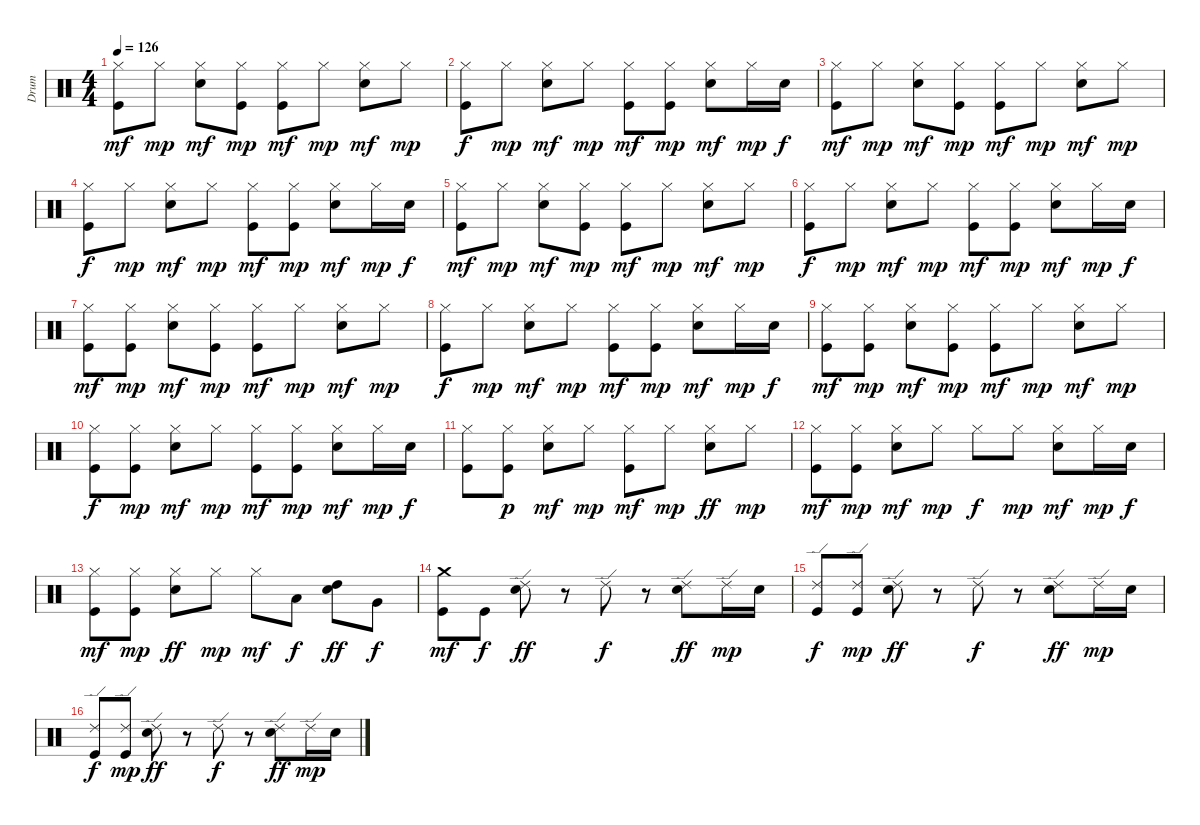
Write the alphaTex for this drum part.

\track ("Drum" "Drum") {instrument percussion}
\staff {score}
\articulation defaults
\ts (4 4)
\tempo 126
\clef neutral
\ks c
("Kick (hit)" "Hi-Hat (closed)").8{dy mf} "Hi-Hat (closed)".8{dy mp} ("Snare (hit) 2" "Hi-Hat (closed)").8{dy mf} ("Kick (hit)" "Hi-Hat (closed)").8{dy mp} ("Kick (hit)" "Hi-Hat (closed)").8{dy mf} "Hi-Hat (closed)".8{dy mp} ("Snare (hit) 2" "Hi-Hat (closed)").8{dy mf} "Hi-Hat (closed)".8{dy mp} |
("Kick (hit)" "Hi-Hat (closed)").8{dy f} "Hi-Hat (closed)".8{dy mp} ("Snare (hit) 2" "Hi-Hat (closed)").8{dy mf} "Hi-Hat (closed)".8{dy mp} ("Kick (hit)" "Hi-Hat (closed)").8{dy mf} ("Kick (hit)" "Hi-Hat (closed)").8{dy mp} ("Snare (hit) 2" "Hi-Hat (closed)").8{dy mf} "Hi-Hat (closed)".16{dy mp} "Snare (hit) 2".16{dy f} |
("Kick (hit)" "Hi-Hat (closed)").8{dy mf} "Hi-Hat (closed)".8{dy mp} ("Snare (hit) 2" "Hi-Hat (closed)").8{dy mf} ("Kick (hit)" "Hi-Hat (closed)").8{dy mp} ("Kick (hit)" "Hi-Hat (closed)").8{dy mf} "Hi-Hat (closed)".8{dy mp} ("Snare (hit) 2" "Hi-Hat (closed)").8{dy mf} "Hi-Hat (closed)".8{dy mp} |
("Kick (hit)" "Hi-Hat (closed)").8{dy f} "Hi-Hat (closed)".8{dy mp} ("Snare (hit) 2" "Hi-Hat (closed)").8{dy mf} "Hi-Hat (closed)".8{dy mp} ("Kick (hit)" "Hi-Hat (closed)").8{dy mf} ("Kick (hit)" "Hi-Hat (closed)").8{dy mp} ("Snare (hit) 2" "Hi-Hat (closed)").8{dy mf} "Hi-Hat (closed)".16{dy mp} "Snare (hit) 2".16{dy f} |
("Kick (hit)" "Hi-Hat (closed)").8{dy mf} "Hi-Hat (closed)".8{dy mp} ("Snare (hit) 2" "Hi-Hat (closed)").8{dy mf} ("Kick (hit)" "Hi-Hat (closed)").8{dy mp} ("Kick (hit)" "Hi-Hat (closed)").8{dy mf} "Hi-Hat (closed)".8{dy mp} ("Snare (hit) 2" "Hi-Hat (closed)").8{dy mf} "Hi-Hat (closed)".8{dy mp} |
("Kick (hit)" "Hi-Hat (closed)").8{dy f} "Hi-Hat (closed)".8{dy mp} ("Snare (hit) 2" "Hi-Hat (closed)").8{dy mf} "Hi-Hat (closed)".8{dy mp} ("Kick (hit)" "Hi-Hat (closed)").8{dy mf} ("Kick (hit)" "Hi-Hat (closed)").8{dy mp} ("Snare (hit) 2" "Hi-Hat (closed)").8{dy mf} "Hi-Hat (closed)".16{dy mp} "Snare (hit) 2".16{dy f} |
("Kick (hit)" "Hi-Hat (closed)").8{dy mf} ("Kick (hit)" "Hi-Hat (closed)").8{dy mp} ("Snare (hit) 2" "Hi-Hat (closed)").8{dy mf} ("Kick (hit)" "Hi-Hat (closed)").8{dy mp} ("Kick (hit)" "Hi-Hat (closed)").8{dy mf} "Hi-Hat (closed)".8{dy mp} ("Snare (hit) 2" "Hi-Hat (closed)").8{dy mf} "Hi-Hat (closed)".8{dy mp} |
("Kick (hit)" "Hi-Hat (closed)").8{dy f} "Hi-Hat (closed)".8{dy mp} ("Snare (hit) 2" "Hi-Hat (closed)").8{dy mf} "Hi-Hat (closed)".8{dy mp} ("Kick (hit)" "Hi-Hat (closed)").8{dy mf} ("Kick (hit)" "Hi-Hat (closed)").8{dy mp} ("Snare (hit) 2" "Hi-Hat (closed)").8{dy mf} "Hi-Hat (closed)".16{dy mp} "Snare (hit) 2".16{dy f} |
("Kick (hit)" "Hi-Hat (closed)").8{dy mf} ("Kick (hit)" "Hi-Hat (closed)").8{dy mp} ("Snare (hit) 2" "Hi-Hat (closed)").8{dy mf} ("Kick (hit)" "Hi-Hat (closed)").8{dy mp} ("Kick (hit)" "Hi-Hat (closed)").8{dy mf} "Hi-Hat (closed)".8{dy mp} ("Snare (hit) 2" "Hi-Hat (closed)").8{dy mf} "Hi-Hat (closed)".8{dy mp} |
("Kick (hit)" "Hi-Hat (closed)").8{dy f} ("Kick (hit)" "Hi-Hat (closed)").8{dy mp} ("Snare (hit) 2" "Hi-Hat (closed)").8{dy mf} "Hi-Hat (closed)".8{dy mp} ("Kick (hit)" "Hi-Hat (closed)").8{dy mf} ("Kick (hit)" "Hi-Hat (closed)").8{dy mp} ("Snare (hit) 2" "Hi-Hat (closed)").8{dy mf} "Hi-Hat (closed)".16{dy mp} "Snare (hit) 2".16{dy f} |
("Kick (hit)" "Hi-Hat (closed)").8 ("Kick (hit)" "Hi-Hat (closed)").8{dy p} ("Snare (hit) 2" "Hi-Hat (closed)").8{dy mf} "Hi-Hat (closed)".8{dy mp} ("Kick (hit)" "Hi-Hat (closed)").8{dy mf} "Hi-Hat (closed)".8{dy mp} ("Snare (hit) 2" "Hi-Hat (closed)").8{dy ff} "Hi-Hat (closed)".8{dy mp} |
("Kick (hit)" "Hi-Hat (closed)").8{dy mf} ("Kick (hit)" "Hi-Hat (closed)").8{dy mp} ("Snare (hit) 2" "Hi-Hat (closed)").8{dy mf} "Hi-Hat (closed)".8{dy mp} "Hi-Hat (closed)".8{dy f} "Hi-Hat (closed)".8{dy mp} ("Snare (hit) 2" "Hi-Hat (closed)").8{dy mf} "Hi-Hat (closed)".16{dy mp} "Snare (hit) 2".16{dy f} |
("Kick (hit)" "Hi-Hat (closed)").8{dy mf} ("Kick (hit)" "Hi-Hat (closed)").8{dy mp} ("Snare (hit) 2" "Hi-Hat (closed)").8{dy ff} "Hi-Hat (closed)".8{dy mp} "Hi-Hat (closed)".8{dy mf} "Low Tom (hit)".8{dy f} ("Snare (hit) 2" "High Tom (hit)").8{dy ff} "Very Low Tom (hit)".8{dy f} |
("Kick (hit)" "Crash medium (hit)").8{dy mf} "Kick (hit)".8{dy f} ("Snare (hit) 2" "Ride (edge) 2").8{dy ff} r.8 "Ride (edge) 2".8{dy f} r.8 ("Snare (hit) 2" "Ride (edge) 2").8{dy ff} "Ride (edge) 2".16{dy mp} "Snare (hit) 2".16 |
("Kick (hit)" "Ride (edge) 2").8{dy f} ("Kick (hit)" "Ride (edge) 2").8{dy mp} ("Snare (hit) 2" "Ride (edge) 2").8{dy ff} r.8 "Ride (edge) 2".8{dy f} r.8 ("Snare (hit) 2" "Ride (edge) 2").8{dy ff} "Ride (edge) 2".16{dy mp} "Snare (hit) 2".16 |
("Kick (hit)" "Ride (edge) 2").8{dy f} ("Kick (hit)" "Ride (edge) 2").8{dy mp} ("Snare (hit) 2" "Ride (edge) 2").8{dy ff} r.8 "Ride (edge) 2".8{dy f} r.8 ("Snare (hit) 2" "Ride (edge) 2").8{dy ff} "Ride (edge) 2".16{dy mp} "Snare (hit) 2".16
